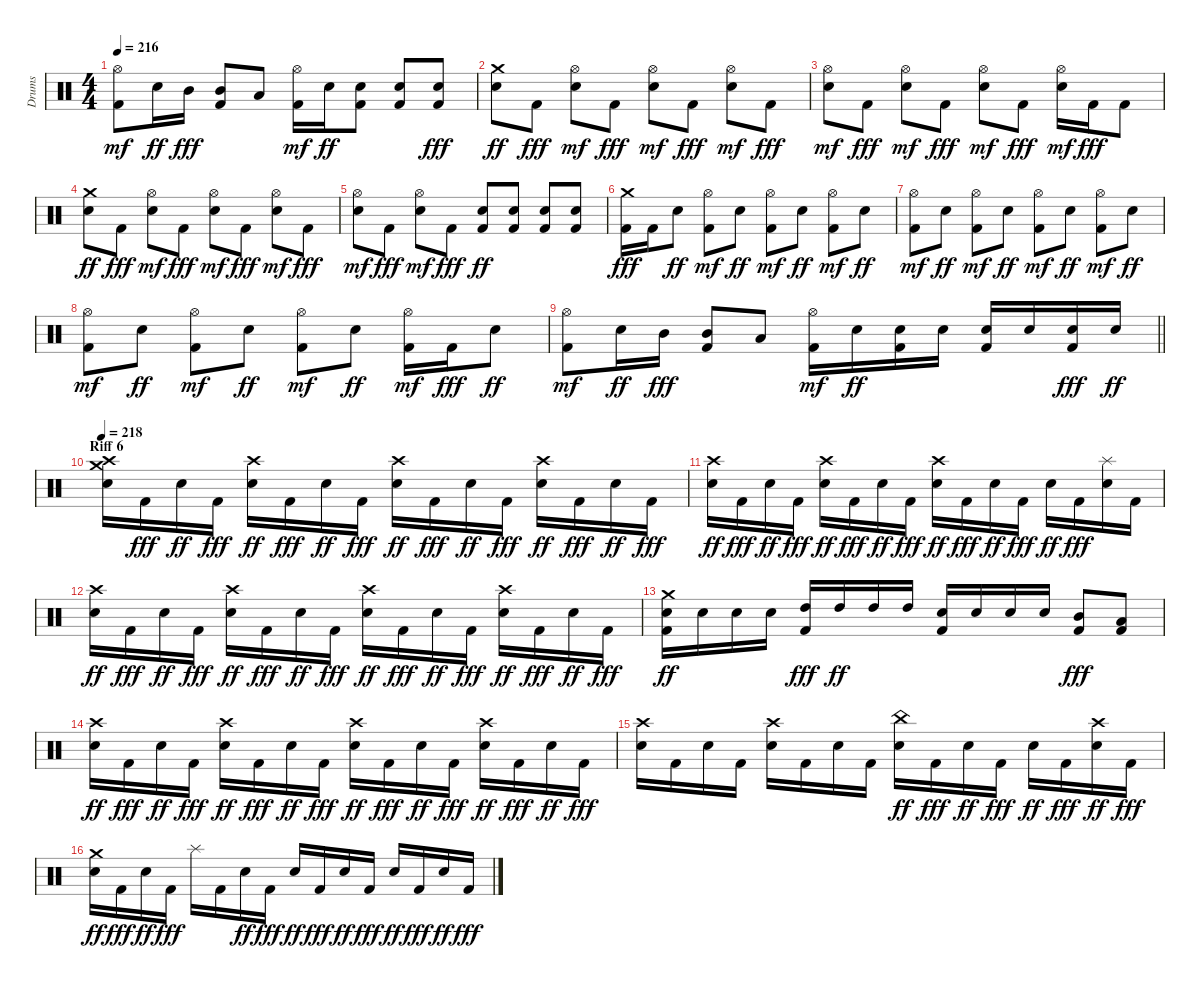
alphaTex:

\track ("Drums" "Drums") {instrument percussion}
\staff {score}
\articulation defaults
\ts (4 4)
\tempo 216
\clef neutral
\ks c
("Kick (hit) 2" "Hi-Hat (open)").8{dy mf} "Snare (hit) 2".16{dy ff} "Mid Tom (hit)".16{dy fff} ("Kick (hit) 2" "Mid Tom (hit)").8 "Low Tom (hit)".8 ("Kick (hit) 2" "Hi-Hat (open)").16{dy mf} "Snare (hit) 2".16{dy ff} ("Kick (hit) 2" "Snare (hit) 2").8 ("Kick (hit) 2" "Snare (hit) 2").8 ("Kick (hit) 2" "Snare (hit) 2").8{dy fff} |
("Snare (hit) 2" "Crash medium (hit)").8{dy ff} "Kick (hit) 2".8{dy fff} ("Snare (hit) 2" "Hi-Hat (open)").8{dy mf} "Kick (hit) 2".8{dy fff} ("Snare (hit) 2" "Hi-Hat (open)").8{dy mf} "Kick (hit) 2".8{dy fff} ("Snare (hit) 2" "Hi-Hat (open)").8{dy mf} "Kick (hit) 2".8{dy fff} |
("Snare (hit) 2" "Hi-Hat (open)").8{dy mf} "Kick (hit) 2".8{dy fff} ("Snare (hit) 2" "Hi-Hat (open)").8{dy mf} "Kick (hit) 2".8{dy fff} ("Snare (hit) 2" "Hi-Hat (open)").8{dy mf} "Kick (hit) 2".8{dy fff} ("Snare (hit) 2" "Hi-Hat (open)").16{dy mf} "Kick (hit) 2".16{dy fff} "Kick (hit) 2".8 |
("Snare (hit) 2" "Crash medium (hit)").8{dy ff} "Kick (hit) 2".8{dy fff} ("Snare (hit) 2" "Hi-Hat (open)").8{dy mf} "Kick (hit) 2".8{dy fff} ("Snare (hit) 2" "Hi-Hat (open)").8{dy mf} "Kick (hit) 2".8{dy fff} ("Snare (hit) 2" "Hi-Hat (open)").8{dy mf} "Kick (hit) 2".8{dy fff} |
("Snare (hit) 2" "Hi-Hat (open)").8{dy mf} "Kick (hit) 2".8{dy fff} ("Snare (hit) 2" "Hi-Hat (open)").8{dy mf} "Kick (hit) 2".8{dy fff} ("Kick (hit) 2" "Snare (hit) 2").8{dy ff} ("Kick (hit) 2" "Snare (hit) 2").8 ("Kick (hit) 2" "Snare (hit) 2").8 ("Kick (hit) 2" "Snare (hit) 2").8 |
("Kick (hit) 2" "Crash medium (hit)").16{dy fff} "Kick (hit) 2".16 "Snare (hit) 2".8{dy ff} ("Kick (hit) 2" "Hi-Hat (open)").8{dy mf} "Snare (hit) 2".8{dy ff} ("Kick (hit) 2" "Hi-Hat (open)").8{dy mf} "Snare (hit) 2".8{dy ff} ("Kick (hit) 2" "Hi-Hat (open)").8{dy mf} "Snare (hit) 2".8{dy ff} |
("Kick (hit) 2" "Hi-Hat (open)").8{dy mf} "Snare (hit) 2".8{dy ff} ("Kick (hit) 2" "Hi-Hat (open)").8{dy mf} "Snare (hit) 2".8{dy ff} ("Kick (hit) 2" "Hi-Hat (open)").8{dy mf} "Snare (hit) 2".8{dy ff} ("Kick (hit) 2" "Hi-Hat (open)").8{dy mf} "Snare (hit) 2".8{dy ff} |
("Kick (hit) 2" "Hi-Hat (open)").8{dy mf} "Snare (hit) 2".8{dy ff} ("Kick (hit) 2" "Hi-Hat (open)").8{dy mf} "Snare (hit) 2".8{dy ff} ("Kick (hit) 2" "Hi-Hat (open)").8{dy mf} "Snare (hit) 2".8{dy ff} ("Kick (hit) 2" "Hi-Hat (open)").16{dy mf} "Kick (hit) 2".16{dy fff} "Snare (hit) 2".8{dy ff} |
\barLineRight lightlight
("Kick (hit) 2" "Hi-Hat (open)").8{dy mf} "Snare (hit) 2".16{dy ff} "Mid Tom (hit)".16{dy fff} ("Kick (hit) 2" "Mid Tom (hit)").8 "Low Tom (hit)".8 ("Kick (hit) 2" "Hi-Hat (open)").16{dy mf} "Snare (hit) 2".16{dy ff} ("Kick (hit) 2" "Snare (hit) 2").16 "Snare (hit) 2".16 ("Kick (hit) 2" "Snare (hit) 2").16 "Snare (hit) 2".16 ("Kick (hit) 2" "Snare (hit) 2").16{dy fff} "Snare (hit) 2".16{dy ff} |
\section ("" "Riff 6")
\tempo 218
("Snare (hit) 2" "Crash high (hit)" "Crash medium (hit)").16 "Kick (hit) 2".16{dy fff} "Snare (hit) 2".16{dy ff} "Kick (hit) 2".16{dy fff} ("Snare (hit) 2" "Crash high (hit)").16{dy ff} "Kick (hit) 2".16{dy fff} "Snare (hit) 2".16{dy ff} "Kick (hit) 2".16{dy fff} ("Snare (hit) 2" "Crash high (hit)").16{dy ff} "Kick (hit) 2".16{dy fff} "Snare (hit) 2".16{dy ff} "Kick (hit) 2".16{dy fff} ("Snare (hit) 2" "Crash high (hit)").16{dy ff} "Kick (hit) 2".16{dy fff} "Snare (hit) 2".16{dy ff} "Kick (hit) 2".16{dy fff} |
("Snare (hit) 2" "Crash high (hit)").16{dy ff} "Kick (hit) 2".16{dy fff} "Snare (hit) 2".16{dy ff} "Kick (hit) 2".16{dy fff} ("Snare (hit) 2" "Crash high (hit)").16{dy ff} "Kick (hit) 2".16{dy fff} "Snare (hit) 2".16{dy ff} "Kick (hit) 2".16{dy fff} ("Snare (hit) 2" "Crash high (hit)").16{dy ff} "Kick (hit) 2".16{dy fff} "Snare (hit) 2".16{dy ff} "Kick (hit) 2".16{dy fff} "Snare (hit) 2".16{dy ff} "Kick (hit) 2".16{dy fff} ("Snare (hit) 2" "Splash (hit)").16 "Kick (hit) 2".16 |
("Snare (hit) 2" "Crash high (hit)").16{dy ff} "Kick (hit) 2".16{dy fff} "Snare (hit) 2".16{dy ff} "Kick (hit) 2".16{dy fff} ("Snare (hit) 2" "Crash high (hit)").16{dy ff} "Kick (hit) 2".16{dy fff} "Snare (hit) 2".16{dy ff} "Kick (hit) 2".16{dy fff} ("Snare (hit) 2" "Crash high (hit)").16{dy ff} "Kick (hit) 2".16{dy fff} "Snare (hit) 2".16{dy ff} "Kick (hit) 2".16{dy fff} ("Snare (hit) 2" "Crash high (hit)").16{dy ff} "Kick (hit) 2".16{dy fff} "Snare (hit) 2".16{dy ff} "Kick (hit) 2".16{dy fff} |
("Kick (hit) 2" "Snare (hit) 2" "Crash medium (hit)").16{dy ff} "Snare (hit) 2".16 "Snare (hit) 2".16 "Snare (hit) 2".16 ("Kick (hit) 2" "High Tom (hit)").16{dy fff} "High Tom (hit)".16{dy ff} "High Tom (hit)".16 "High Tom (hit)".16 ("Kick (hit) 2" "Snare (hit) 2").16 "Snare (hit) 2".16 "Snare (hit) 2".16 "Snare (hit) 2".16 ("Kick (hit) 2" "Mid Tom (hit)").8{dy fff} ("Kick (hit) 2" "Low Tom (hit)").8 |
("Snare (hit) 2" "Crash high (hit)").16{dy ff} "Kick (hit) 2".16{dy fff} "Snare (hit) 2".16{dy ff} "Kick (hit) 2".16{dy fff} ("Snare (hit) 2" "Crash high (hit)").16{dy ff} "Kick (hit) 2".16{dy fff} "Snare (hit) 2".16{dy ff} "Kick (hit) 2".16{dy fff} ("Snare (hit) 2" "Crash high (hit)").16{dy ff} "Kick (hit) 2".16{dy fff} "Snare (hit) 2".16{dy ff} "Kick (hit) 2".16{dy fff} ("Snare (hit) 2" "Crash high (hit)").16{dy ff} "Kick (hit) 2".16{dy fff} "Snare (hit) 2".16{dy ff} "Kick (hit) 2".16{dy fff} |
("Snare (hit) 2" "Crash high (hit)").16 "Kick (hit) 2".16 "Snare (hit) 2".16 "Kick (hit) 2".16 ("Snare (hit) 2" "Crash high (hit)").16 "Kick (hit) 2".16 "Snare (hit) 2".16 "Kick (hit) 2".16 ("Snare (hit) 2" "China (hit)").16{dy ff} "Kick (hit) 2".16{dy fff} "Snare (hit) 2".16{dy ff} "Kick (hit) 2".16{dy fff} "Snare (hit) 2".16{dy ff} "Kick (hit) 2".16{dy fff} ("Snare (hit) 2" "Crash high (hit)").16{dy ff} "Kick (hit) 2".16{dy fff} |
("Snare (hit) 2" "Crash medium (hit)").16{dy ff} "Kick (hit) 2".16{dy fff} "Snare (hit) 2".16{dy ff} "Kick (hit) 2".16{dy fff} "Splash (hit)".16 "Kick (hit) 2".16 "Snare (hit) 2".16{dy ff} "Kick (hit) 2".16{dy fff} "Snare (hit) 2".16{dy ff} "Kick (hit) 2".16{dy fff} "Snare (hit) 2".16{dy ff} "Kick (hit) 2".16{dy fff} "Snare (hit) 2".16{dy ff} "Kick (hit) 2".16{dy fff} "Snare (hit) 2".16{dy ff} "Kick (hit) 2".16{dy fff}
